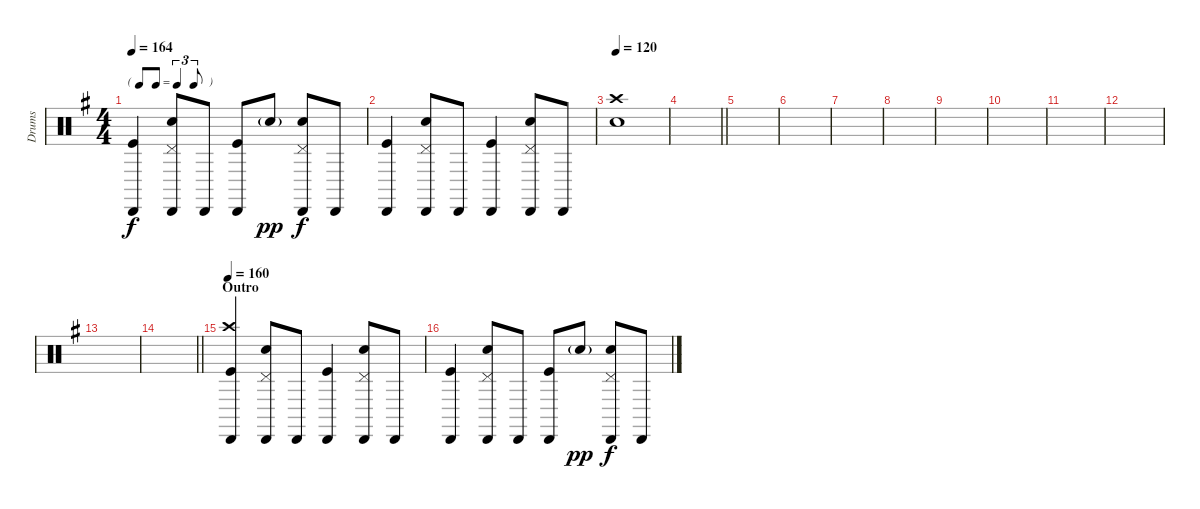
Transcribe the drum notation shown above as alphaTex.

\track ("Drums" "Drums") {instrument percussion}
\staff {score}
\articulation defaults
\ts (4 4)
\tf triplet8th
\tempo 164
\clef neutral
\ks g
("Cabasa (hit)" "Kick (hit)").4{dy f} ("Pedal Hi-Hat (hit)" "Cabasa (hit)" "Snare (hit) 2").8 "Cabasa (hit)".8 ("Cabasa (hit)" "Kick (hit)").8 "Snare (hit) 2"{g}.8{dy pp} ("Pedal Hi-Hat (hit)" "Cabasa (hit)" "Snare (hit) 2").8{dy f} "Cabasa (hit)".8 |
("Cabasa (hit)" "Kick (hit)").4 ("Pedal Hi-Hat (hit)" "Cabasa (hit)" "Snare (hit) 2").8 "Cabasa (hit)".8 ("Cabasa (hit)" "Kick (hit)").4 ("Pedal Hi-Hat (hit)" "Cabasa (hit)" "Snare (hit) 2").8 "Cabasa (hit)".8 |
\tempo 120
("Crash high (hit)" "Snare (hit) 2").1 |
\barLineRight lightlight
|
|
|
|
|
|
|
|
|
|
\barLineRight lightlight
|
\section ("" "Outro")
\tempo 160
("Crash high (hit)" "Cabasa (hit)" "Kick (hit)").4 ("Pedal Hi-Hat (hit)" "Cabasa (hit)" "Snare (hit) 2").8 "Cabasa (hit)".8 ("Cabasa (hit)" "Kick (hit)").4 ("Pedal Hi-Hat (hit)" "Cabasa (hit)" "Snare (hit) 2").8 "Cabasa (hit)".8 |
("Cabasa (hit)" "Kick (hit)").4 ("Pedal Hi-Hat (hit)" "Cabasa (hit)" "Snare (hit) 2").8 "Cabasa (hit)".8 ("Cabasa (hit)" "Kick (hit)").8 "Snare (hit) 2"{g}.8{dy pp} ("Pedal Hi-Hat (hit)" "Cabasa (hit)" "Snare (hit) 2").8{dy f} "Cabasa (hit)".8
